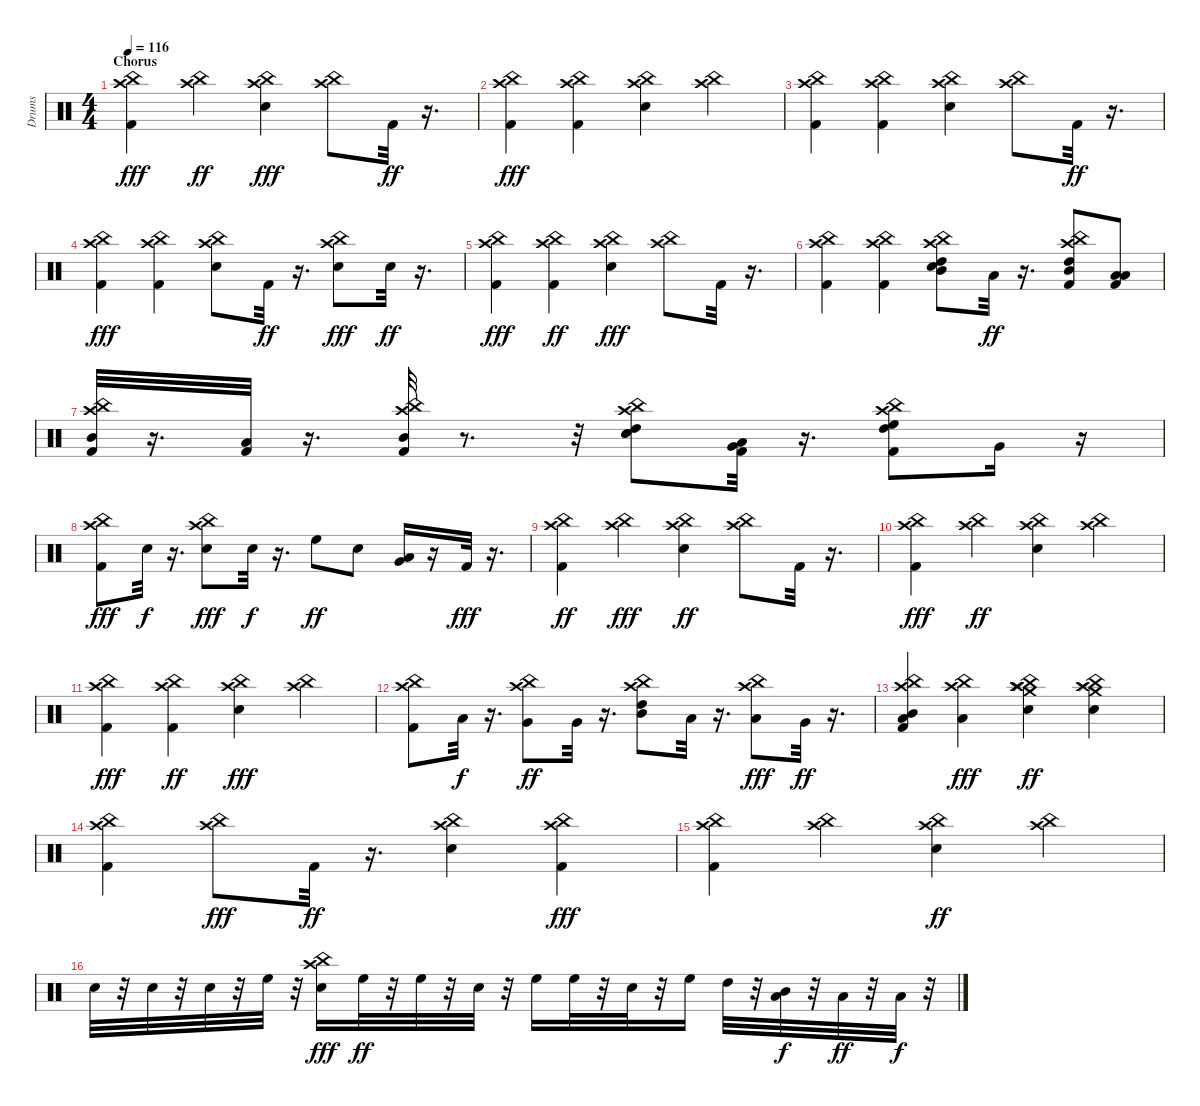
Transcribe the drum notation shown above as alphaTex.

\track ("Drums" "Drums") {instrument percussion}
\staff {score}
\articulation defaults
\ts (4 4)
\section ("" "Chorus")
\tempo 116
\clef neutral
\ks c
("Kick (hit) 2" "China (hit)" "Crash high (hit)").4{dy fff} ("China (hit)" "Crash high (hit)").4{dy ff} ("Snare (hit) 2" "China (hit)" "Crash high (hit)").4{dy fff} ("China (hit)" "Crash high (hit)").8 "Kick (hit) 2".32{dy ff} r.16{d} |
("Kick (hit) 2" "China (hit)" "Crash high (hit)").4{dy fff} ("Kick (hit) 2" "China (hit)" "Crash high (hit)").4 ("Snare (hit) 2" "China (hit)" "Crash high (hit)").4 ("China (hit)" "Crash high (hit)").4 |
("Kick (hit) 2" "China (hit)" "Crash high (hit)").4 ("Kick (hit) 2" "China (hit)" "Crash high (hit)").4 ("Snare (hit) 2" "Crash high (hit)" "China (hit)").4 ("China (hit)" "Crash high (hit)").8 "Kick (hit) 2".32{dy ff} r.16{d} |
("Kick (hit) 2" "China (hit)" "Crash high (hit)").4{dy fff} ("Kick (hit) 2" "China (hit)" "Crash high (hit)").4 ("Snare (hit) 2" "Crash high (hit)" "China (hit)").8 "Kick (hit) 2".32{dy ff} r.16{d} ("Snare (hit) 2" "China (hit)" "Crash high (hit)").8{dy fff} "Snare (hit) 2".32{dy ff} r.16{d} |
("Kick (hit) 2" "China (hit)" "Crash high (hit)").4{dy fff} ("Kick (hit) 2" "China (hit)" "Crash high (hit)").4{dy ff} ("Snare (hit) 2" "China (hit)" "Crash high (hit)").4{dy fff} ("China (hit)" "Crash high (hit)").8 "Kick (hit) 2".32 r.16{d} |
("Kick (hit) 2" "China (hit)" "Crash high (hit)").4 ("Kick (hit) 2" "China (hit)" "Crash high (hit)").4 ("High Tom (hit)" "Mid Tom (hit)" "Snare (hit) 2" "China (hit)" "Crash high (hit)").8 "Low Tom (hit)".32{dy ff} r.16{d} ("China (hit)" "Crash high (hit)" "Mid Tom (hit)" "High Tom (hit)" "Kick (hit) 2").8 ("Low Tom (hit)" "Low Tom (hit)" "Kick (hit) 2").8 |
("Crash high (hit)" "China (hit)" "Mid Tom (hit)" "Kick (hit) 2").32 r.16{d} ("Low Tom (hit)" "Kick (hit) 2").32 r.16{d} ("China (hit)" "Crash high (hit)" "Mid Tom (hit)" "Kick (hit) 2").32 r.8{d} r.32 ("High Tom (hit)" "Snare (hit) 2" "Crash high (hit)" "China (hit)" "Snare (hit) 2").8 ("Very Low Tom (hit)" "Low Tom (hit)" "Kick (hit) 2").32 r.16{d} ("High Floor Tom (hit)" "Crash high (hit)" "High Tom (hit)" "Kick (hit) 2" "China (hit)").8 "Very Low Tom (hit)".16 r.16 |
("Kick (hit) 2" "China (hit)" "Crash high (hit)").8{dy fff} "Snare (hit) 2".32{dy f} r.16{d} ("Snare (hit) 2" "China (hit)" "Crash high (hit)").8{dy fff} "Snare (hit) 2".32{dy f} r.16{d} "High Floor Tom (hit)".8{dy ff} "Snare (hit) 2".8 ("Very Low Tom (hit)" "Low Tom (hit)").16 r.16 "Kick (hit) 2".32{dy fff} r.16{d} |
("Kick (hit) 2" "China (hit)" "Crash high (hit)").4{dy ff} ("China (hit)" "Crash high (hit)").4{dy fff} ("Snare (hit) 2" "China (hit)" "Crash high (hit)").4{dy ff} ("China (hit)" "Crash high (hit)").8 "Kick (hit) 2".32 r.16{d} |
("Kick (hit) 2" "China (hit)" "Crash high (hit)").4{dy fff} ("China (hit)" "Crash high (hit)").4{dy ff} ("China (hit)" "Snare (hit) 2" "Crash high (hit)").4 ("China (hit)" "Crash high (hit)").4 |
("Kick (hit) 2" "China (hit)" "Crash high (hit)").4{dy fff} ("Kick (hit) 2" "China (hit)" "Crash high (hit)").4{dy ff} ("China (hit)" "Snare (hit) 2" "Crash high (hit)").4{dy fff} ("China (hit)" "Crash high (hit)").4 |
("Kick (hit) 2" "China (hit)" "Crash high (hit)").8 "Low Tom (hit)".32{dy f} r.16{d} ("Very Low Tom (hit)" "China (hit)" "Crash high (hit)").8{dy ff} "Very Low Tom (hit)".32 r.16{d} ("Mid Tom (hit)" "High Tom (hit)" "China (hit)" "Crash high (hit)").8 "Low Floor Tom (hit)".32 r.16{d} ("Low Tom (hit)" "China (hit)" "Crash high (hit)").8{dy fff} "Very Low Tom (hit)".32{dy ff} r.16{d} |
("Kick (hit) 2" "Low Tom (hit)" "Mid Tom (hit)" "China (hit)" "Crash high (hit)").4 ("Low Tom (hit)" "China (hit)" "Crash high (hit)").4{dy fff} ("Crash medium (hit)" "Splash (hit)" "Crash high (hit)" "China (hit)" "Crash high (hit)" "Snare (hit) 2").4{dy ff} ("Splash (hit)" "Crash medium (hit)" "Snare (hit) 2" "China (hit)" "Crash high (hit)").4 |
("Kick (hit) 2" "China (hit)" "Crash high (hit)").4 ("China (hit)" "Crash high (hit)").8{dy fff} "Kick (hit) 2".32{dy ff} r.16{d} ("China (hit)" "Crash high (hit)" "Snare (hit) 2").4 ("Kick (hit) 2" "China (hit)" "Crash high (hit)").4{dy fff} |
("Kick (hit) 2" "China (hit)" "Crash high (hit)").4 ("China (hit)" "Crash high (hit)").4 ("Snare (hit) 2" "China (hit)" "Crash high (hit)").4{dy ff} ("China (hit)" "Crash high (hit)").4 |
"Snare (hit) 2".32 r.32 "Snare (hit) 2".32 r.32 "Snare (hit) 2".32 r.32 "High Floor Tom (hit)".32 r.32 ("Snare (hit) 2" "China (hit)" "Crash high (hit)").16{dy fff} "High Floor Tom (hit)".32{dy ff} r.32 "High Floor Tom (hit)".32 r.32 "Snare (hit) 2".32 r.32 "High Floor Tom (hit)".16 "High Floor Tom (hit)".32 r.32 "Snare (hit) 2".32 r.32 "High Floor Tom (hit)".16 "High Tom (hit)".32 r.32 ("Low Tom (hit)" "Mid Tom (hit)").32{dy f} r.32 "Low Tom (hit)".32{dy ff} r.32 "Low Floor Tom (hit)".32{dy f} r.32
